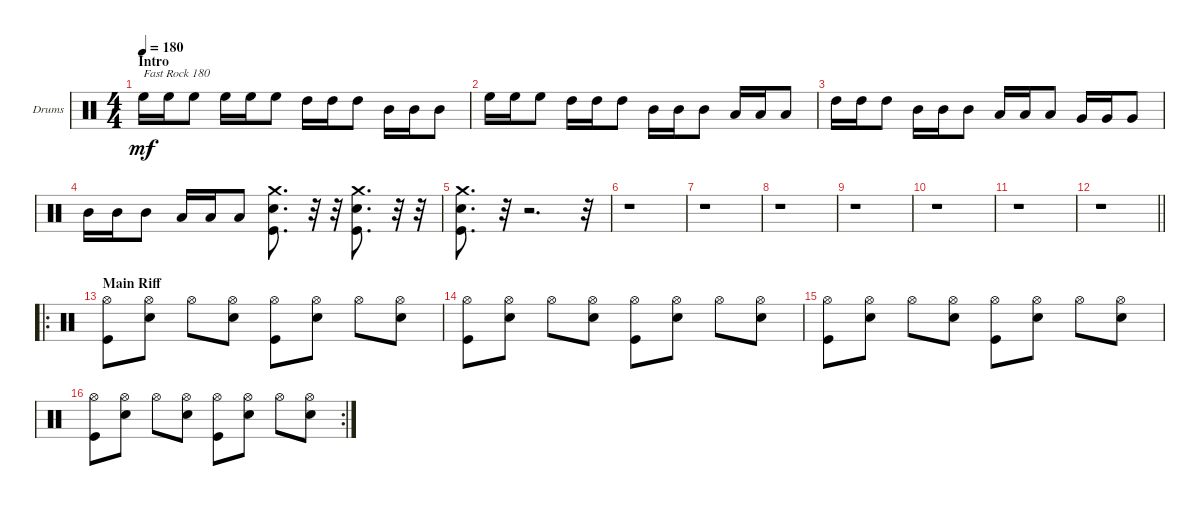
\bracketExtendMode groupsimilarinstruments
\firstSystemTrackNameOrientation horizontal
\otherSystemsTrackNameOrientation horizontal
\track ("Drumkit" "Drums") {instrument percussion}
\staff {score}
\articulation defaults
\ts (4 4)
\beaming (8 2 2 2 2)
\section ("" "Intro")
\tempo 180
\clef neutral
\ks c "High Floor Tom (hit)".16{txt "Fast Rock 180" dy mf} "High Floor Tom (hit)".16 "High Floor Tom (hit)".8 "High Floor Tom (hit)".16 "High Floor Tom (hit)".16 "High Floor Tom (hit)".8 "High Tom (hit)".16 "High Tom (hit)".16 "High Tom (hit)".8 "Mid Tom (hit)".16 "Mid Tom (hit)".16 "Mid Tom (hit)".8
|
"High Floor Tom (hit)".16 "High Floor Tom (hit)".16 "High Floor Tom (hit)".8 "High Tom (hit)".16 "High Tom (hit)".16 "High Tom (hit)".8 "Mid Tom (hit)".16 "Mid Tom (hit)".16 "Mid Tom (hit)".8 "Low Tom (hit)".16 "Low Tom (hit)".16 "Low Tom (hit)".8 |
"High Tom (hit)".16 "High Tom (hit)".16 "High Tom (hit)".8 "Mid Tom (hit)".16 "Mid Tom (hit)".16 "Mid Tom (hit)".8 "Low Tom (hit)".16 "Low Tom (hit)".16 "Low Tom (hit)".8 "Very Low Tom (hit)".16 "Very Low Tom (hit)".16 "Very Low Tom (hit)".8 |
"Mid Tom (hit)".16 "Mid Tom (hit)".16 "Mid Tom (hit)".8 "Low Tom (hit)".16 "Low Tom (hit)".16 "Low Tom (hit)".8 ("Kick (hit)" "Snare (hit) 2" "Crash medium (hit)").8{d} r.32 r.32 ("Kick (hit)" "Snare (hit) 2" "Crash medium (hit)").8{d} r.32 r.32 |
("Kick (hit)" "Snare (hit) 2" "Crash medium (hit)").8{d} r.32 r.2{d} r.32 |
r.1 |
r.1 |
r.1 |
r.1 |
r.1 |
r.1 |
\barLineRight lightlight
r.1 |
\ro
\section ("" "Main Riff")
("Kick (hit)" "Hi-Hat (open)").8 ("Snare (hit) 2" "Hi-Hat (open)").8 "Hi-Hat (open)".8 ("Snare (hit) 2" "Hi-Hat (open)").8 ("Kick (hit)" "Hi-Hat (open)").8 ("Snare (hit) 2" "Hi-Hat (open)").8 "Hi-Hat (open)".8 ("Snare (hit) 2" "Hi-Hat (open)").8 |
("Kick (hit)" "Hi-Hat (open)").8 ("Snare (hit) 2" "Hi-Hat (open)").8 "Hi-Hat (open)".8 ("Snare (hit) 2" "Hi-Hat (open)").8 ("Kick (hit)" "Hi-Hat (open)").8 ("Snare (hit) 2" "Hi-Hat (open)").8 "Hi-Hat (open)".8 ("Snare (hit) 2" "Hi-Hat (open)").8 |
("Kick (hit)" "Hi-Hat (open)").8 ("Snare (hit) 2" "Hi-Hat (open)").8 "Hi-Hat (open)".8 ("Snare (hit) 2" "Hi-Hat (open)").8 ("Kick (hit)" "Hi-Hat (open)").8 ("Snare (hit) 2" "Hi-Hat (open)").8 "Hi-Hat (open)".8 ("Snare (hit) 2" "Hi-Hat (open)").8 |
\rc 2
("Kick (hit)" "Hi-Hat (open)").8 ("Snare (hit) 2" "Hi-Hat (open)").8 "Hi-Hat (open)".8 ("Snare (hit) 2" "Hi-Hat (open)").8 ("Kick (hit)" "Hi-Hat (open)").8 ("Snare (hit) 2" "Hi-Hat (open)").8 "Hi-Hat (open)".8 ("Snare (hit) 2" "Hi-Hat (open)").8
